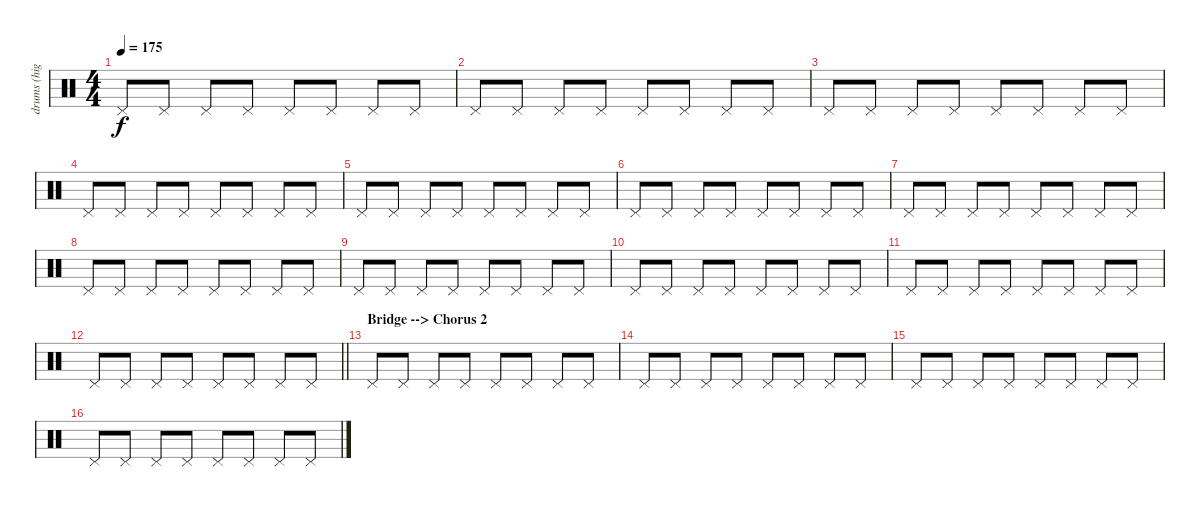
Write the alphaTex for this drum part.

\track ("drums (highhat)" "drums (hig") {instrument percussion}
\staff {score}
\articulation defaults
\ts (4 4)
\tempo 175
\clef neutral
\ks c "Pedal Hi-Hat (hit)".8{dy f} "Pedal Hi-Hat (hit)".8 "Pedal Hi-Hat (hit)".8 "Pedal Hi-Hat (hit)".8 "Pedal Hi-Hat (hit)".8 "Pedal Hi-Hat (hit)".8 "Pedal Hi-Hat (hit)".8 "Pedal Hi-Hat (hit)".8
|
"Pedal Hi-Hat (hit)".8 "Pedal Hi-Hat (hit)".8 "Pedal Hi-Hat (hit)".8 "Pedal Hi-Hat (hit)".8 "Pedal Hi-Hat (hit)".8 "Pedal Hi-Hat (hit)".8 "Pedal Hi-Hat (hit)".8 "Pedal Hi-Hat (hit)".8 |
"Pedal Hi-Hat (hit)".8 "Pedal Hi-Hat (hit)".8 "Pedal Hi-Hat (hit)".8 "Pedal Hi-Hat (hit)".8 "Pedal Hi-Hat (hit)".8 "Pedal Hi-Hat (hit)".8 "Pedal Hi-Hat (hit)".8 "Pedal Hi-Hat (hit)".8 |
"Pedal Hi-Hat (hit)".8 "Pedal Hi-Hat (hit)".8 "Pedal Hi-Hat (hit)".8 "Pedal Hi-Hat (hit)".8 "Pedal Hi-Hat (hit)".8 "Pedal Hi-Hat (hit)".8 "Pedal Hi-Hat (hit)".8 "Pedal Hi-Hat (hit)".8 |
"Pedal Hi-Hat (hit)".8 "Pedal Hi-Hat (hit)".8 "Pedal Hi-Hat (hit)".8 "Pedal Hi-Hat (hit)".8 "Pedal Hi-Hat (hit)".8 "Pedal Hi-Hat (hit)".8 "Pedal Hi-Hat (hit)".8 "Pedal Hi-Hat (hit)".8 |
"Pedal Hi-Hat (hit)".8 "Pedal Hi-Hat (hit)".8 "Pedal Hi-Hat (hit)".8 "Pedal Hi-Hat (hit)".8 "Pedal Hi-Hat (hit)".8 "Pedal Hi-Hat (hit)".8 "Pedal Hi-Hat (hit)".8 "Pedal Hi-Hat (hit)".8 |
"Pedal Hi-Hat (hit)".8 "Pedal Hi-Hat (hit)".8 "Pedal Hi-Hat (hit)".8 "Pedal Hi-Hat (hit)".8 "Pedal Hi-Hat (hit)".8 "Pedal Hi-Hat (hit)".8 "Pedal Hi-Hat (hit)".8 "Pedal Hi-Hat (hit)".8 |
"Pedal Hi-Hat (hit)".8 "Pedal Hi-Hat (hit)".8 "Pedal Hi-Hat (hit)".8 "Pedal Hi-Hat (hit)".8 "Pedal Hi-Hat (hit)".8 "Pedal Hi-Hat (hit)".8 "Pedal Hi-Hat (hit)".8 "Pedal Hi-Hat (hit)".8 |
"Pedal Hi-Hat (hit)".8 "Pedal Hi-Hat (hit)".8 "Pedal Hi-Hat (hit)".8 "Pedal Hi-Hat (hit)".8 "Pedal Hi-Hat (hit)".8 "Pedal Hi-Hat (hit)".8 "Pedal Hi-Hat (hit)".8 "Pedal Hi-Hat (hit)".8 |
"Pedal Hi-Hat (hit)".8 "Pedal Hi-Hat (hit)".8 "Pedal Hi-Hat (hit)".8 "Pedal Hi-Hat (hit)".8 "Pedal Hi-Hat (hit)".8 "Pedal Hi-Hat (hit)".8 "Pedal Hi-Hat (hit)".8 "Pedal Hi-Hat (hit)".8 |
"Pedal Hi-Hat (hit)".8 "Pedal Hi-Hat (hit)".8 "Pedal Hi-Hat (hit)".8 "Pedal Hi-Hat (hit)".8 "Pedal Hi-Hat (hit)".8 "Pedal Hi-Hat (hit)".8 "Pedal Hi-Hat (hit)".8 "Pedal Hi-Hat (hit)".8 |
\barLineRight lightlight "Pedal Hi-Hat (hit)".8 "Pedal Hi-Hat (hit)".8 "Pedal Hi-Hat (hit)".8 "Pedal Hi-Hat (hit)".8 "Pedal Hi-Hat (hit)".8 "Pedal Hi-Hat (hit)".8 "Pedal Hi-Hat (hit)".8 "Pedal Hi-Hat (hit)".8
|
\section ("" "Bridge --> Chorus 2")
"Pedal Hi-Hat (hit)".8 "Pedal Hi-Hat (hit)".8 "Pedal Hi-Hat (hit)".8 "Pedal Hi-Hat (hit)".8 "Pedal Hi-Hat (hit)".8 "Pedal Hi-Hat (hit)".8 "Pedal Hi-Hat (hit)".8 "Pedal Hi-Hat (hit)".8 |
"Pedal Hi-Hat (hit)".8 "Pedal Hi-Hat (hit)".8 "Pedal Hi-Hat (hit)".8 "Pedal Hi-Hat (hit)".8 "Pedal Hi-Hat (hit)".8 "Pedal Hi-Hat (hit)".8 "Pedal Hi-Hat (hit)".8 "Pedal Hi-Hat (hit)".8 |
"Pedal Hi-Hat (hit)".8 "Pedal Hi-Hat (hit)".8 "Pedal Hi-Hat (hit)".8 "Pedal Hi-Hat (hit)".8 "Pedal Hi-Hat (hit)".8 "Pedal Hi-Hat (hit)".8 "Pedal Hi-Hat (hit)".8 "Pedal Hi-Hat (hit)".8 |
"Pedal Hi-Hat (hit)".8 "Pedal Hi-Hat (hit)".8 "Pedal Hi-Hat (hit)".8 "Pedal Hi-Hat (hit)".8 "Pedal Hi-Hat (hit)".8 "Pedal Hi-Hat (hit)".8 "Pedal Hi-Hat (hit)".8 "Pedal Hi-Hat (hit)".8
